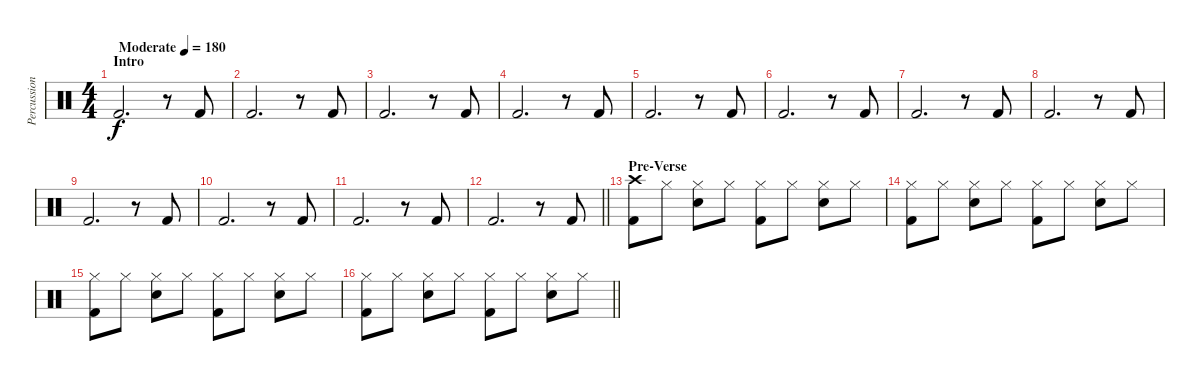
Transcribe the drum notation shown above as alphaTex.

\track ("Percussion" "Percussion") {instrument percussion}
\staff {score}
\articulation defaults
\ts (4 4)
\section ("" "Intro")
\tempo (180 "Moderate")
\clef neutral
\ks c "Kick (hit) 2".2{d dy f}
r.8 "Kick (hit) 2".8 |
"Kick (hit) 2".2{d} r.8 "Kick (hit) 2".8 |
"Kick (hit) 2".2{d} r.8 "Kick (hit) 2".8 |
"Kick (hit) 2".2{d} r.8 "Kick (hit) 2".8 |
"Kick (hit) 2".2{d} r.8 "Kick (hit) 2".8 |
"Kick (hit) 2".2{d} r.8 "Kick (hit) 2".8 |
"Kick (hit) 2".2{d} r.8 "Kick (hit) 2".8 |
"Kick (hit) 2".2{d} r.8 "Kick (hit) 2".8 |
"Kick (hit) 2".2{d} r.8 "Kick (hit) 2".8 |
"Kick (hit) 2".2{d} r.8 "Kick (hit) 2".8 |
"Kick (hit) 2".2{d} r.8 "Kick (hit) 2".8 |
\barLineRight lightlight "Kick (hit) 2".2{d}
r.8 "Kick (hit) 2".8 |
\section ("" "Pre-Verse")
("Crash high (hit)" "Kick (hit) 2").8 "Hi-Hat (closed)".8 ("Hi-Hat (closed)" "Snare (hit) 2").8 "Hi-Hat (closed)".8 ("Hi-Hat (closed)" "Kick (hit) 2").8 "Hi-Hat (closed)".8 ("Hi-Hat (closed)" "Snare (hit) 2").8 "Hi-Hat (closed)".8 |
("Hi-Hat (closed)" "Kick (hit) 2").8 "Hi-Hat (closed)".8 ("Hi-Hat (closed)" "Snare (hit) 2").8 "Hi-Hat (closed)".8 ("Hi-Hat (closed)" "Kick (hit) 2").8 "Hi-Hat (closed)".8 ("Hi-Hat (closed)" "Snare (hit) 2").8 "Hi-Hat (closed)".8 |
("Hi-Hat (closed)" "Kick (hit) 2").8 "Hi-Hat (closed)".8 ("Hi-Hat (closed)" "Snare (hit) 2").8 "Hi-Hat (closed)".8 ("Hi-Hat (closed)" "Kick (hit) 2").8 "Hi-Hat (closed)".8 ("Hi-Hat (closed)" "Snare (hit) 2").8 "Hi-Hat (closed)".8 |
\barLineRight lightlight
("Hi-Hat (closed)" "Kick (hit) 2").8 "Hi-Hat (closed)".8 ("Hi-Hat (closed)" "Snare (hit) 2").8 "Hi-Hat (closed)".8 ("Hi-Hat (closed)" "Kick (hit) 2").8 "Hi-Hat (closed)".8 ("Hi-Hat (closed)" "Snare (hit) 2").8 "Hi-Hat (closed)".8
